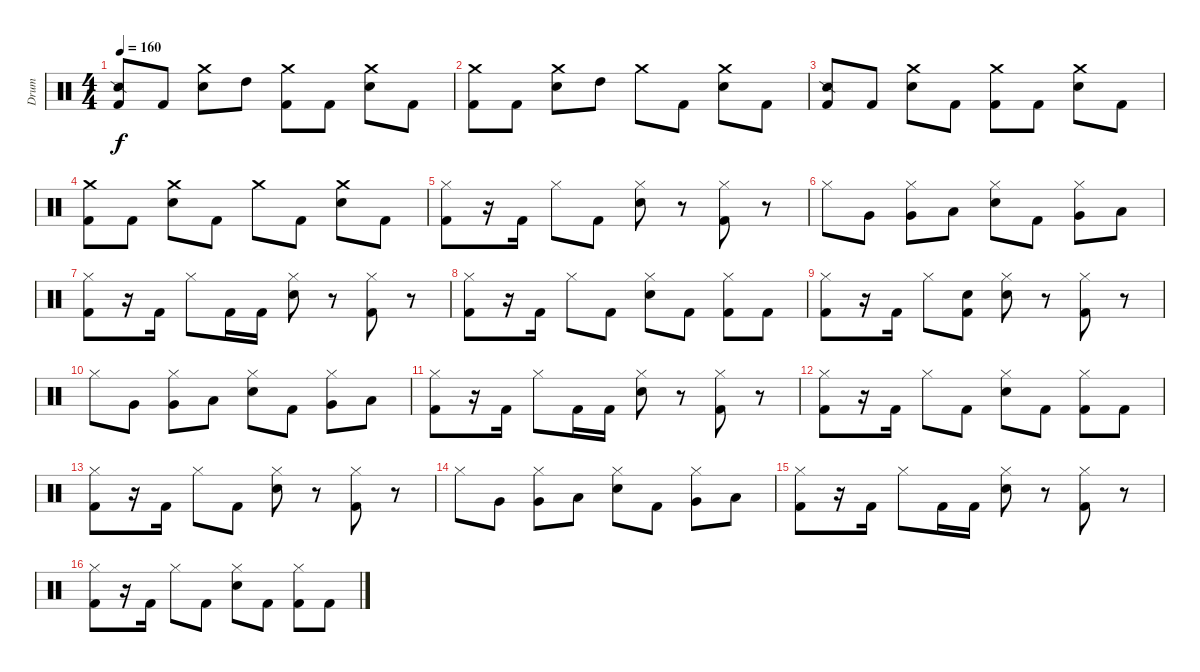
\track ("Drum" "Drum") {instrument percussion}
\staff {score}
\articulation defaults
\ts (4 4)
\tempo 160
\clef neutral
\ks c
("Kick (hit) 2" "Snare (side stick) 2").8{dy f} "Kick (hit) 2".8 ("Crash medium (hit)" "Electric Snare (hit)").8 "High Tom (hit)".8 ("Crash medium (hit)" "Kick (hit) 2").8 "Kick (hit) 2".8 ("Electric Snare (hit)" "Crash medium (hit)").8 "Kick (hit) 2".8 |
("Kick (hit) 2" "Crash medium (hit)").8 "Kick (hit) 2".8 ("Crash medium (hit)" "Electric Snare (hit)").8 "High Tom (hit)".8 "Crash medium (hit)".8 "Kick (hit) 2".8 ("Crash medium (hit)" "Electric Snare (hit)").8 "Kick (hit) 2".8 |
("Kick (hit) 2" "Snare (side stick) 2").8 "Kick (hit) 2".8 ("Electric Snare (hit)" "Crash medium (hit)").8 "Kick (hit) 2".8 ("Crash medium (hit)" "Kick (hit) 2").8 "Kick (hit) 2".8 ("Crash medium (hit)" "Electric Snare (hit)").8 "Kick (hit) 2".8 |
("Crash medium (hit)" "Kick (hit) 2").8 "Kick (hit) 2".8 ("Electric Snare (hit)" "Crash medium (hit)").8 "Kick (hit) 2".8 "Crash medium (hit)".8 "Kick (hit) 2".8 ("Electric Snare (hit)" "Crash medium (hit)").8 "Kick (hit) 2".8 |
("Kick (hit) 2" "Hi-Hat (closed)").8 r.16 "Kick (hit) 2".16 "Hi-Hat (closed)".8 "Kick (hit) 2".8 ("Electric Snare (hit)" "Hi-Hat (closed)").8 r.8 ("Kick (hit) 2" "Hi-Hat (closed)").8 r.8 |
"Hi-Hat (closed)".8 "Very Low Tom (hit)".8 ("Very Low Tom (hit)" "Hi-Hat (closed)").8 "Low Floor Tom (hit)".8 ("Electric Snare (hit)" "Hi-Hat (closed)").8 "Kick (hit) 2".8 ("Hi-Hat (closed)" "Very Low Tom (hit)").8 "Low Floor Tom (hit)".8 |
("Hi-Hat (closed)" "Kick (hit) 2").8 r.16 "Kick (hit) 2".16 "Hi-Hat (closed)".8 "Kick (hit) 2".16 "Kick (hit) 2".16 ("Electric Snare (hit)" "Hi-Hat (closed)").8 r.8 ("Hi-Hat (closed)" "Kick (hit) 2").8 r.8 |
("Hi-Hat (closed)" "Kick (hit) 2").8 r.16 "Kick (hit) 2".16 "Hi-Hat (closed)".8 "Kick (hit) 2".8 ("Hi-Hat (closed)" "Electric Snare (hit)").8 "Kick (hit) 2".8 ("Kick (hit) 2" "Hi-Hat (closed)").8 "Kick (hit) 2".8 |
("Kick (hit) 2" "Hi-Hat (closed)").8 r.16 "Kick (hit) 2".16 "Hi-Hat (closed)".8 ("Kick (hit) 2" "Snare (hit)").8 ("Hi-Hat (closed)" "Electric Snare (hit)").8 r.8 ("Kick (hit) 2" "Hi-Hat (closed)").8 r.8 |
"Hi-Hat (closed)".8 "Very Low Tom (hit)".8 ("Very Low Tom (hit)" "Hi-Hat (closed)").8 "Low Floor Tom (hit)".8 ("Hi-Hat (closed)" "Electric Snare (hit)").8 "Kick (hit) 2".8 ("Hi-Hat (closed)" "Very Low Tom (hit)").8 "Low Floor Tom (hit)".8 |
("Hi-Hat (closed)" "Kick (hit) 2").8 r.16 "Kick (hit) 2".16 "Hi-Hat (closed)".8 "Kick (hit) 2".16 "Kick (hit) 2".16 ("Hi-Hat (closed)" "Electric Snare (hit)").8 r.8 ("Hi-Hat (closed)" "Kick (hit) 2").8 r.8 |
("Hi-Hat (closed)" "Kick (hit) 2").8 r.16 "Kick (hit) 2".16 "Hi-Hat (closed)".8 "Kick (hit) 2".8 ("Hi-Hat (closed)" "Electric Snare (hit)").8 "Kick (hit) 2".8 ("Hi-Hat (closed)" "Kick (hit) 2").8 "Kick (hit) 2".8 |
("Hi-Hat (closed)" "Kick (hit) 2").8 r.16 "Kick (hit) 2".16 "Hi-Hat (closed)".8 "Kick (hit) 2".8 ("Electric Snare (hit)" "Hi-Hat (closed)").8 r.8 ("Hi-Hat (closed)" "Kick (hit) 2").8 r.8 |
"Hi-Hat (closed)".8 "Very Low Tom (hit)".8 ("Very Low Tom (hit)" "Hi-Hat (closed)").8 "Low Floor Tom (hit)".8 ("Hi-Hat (closed)" "Electric Snare (hit)").8 "Kick (hit) 2".8 ("Very Low Tom (hit)" "Hi-Hat (closed)").8 "Low Floor Tom (hit)".8 |
("Kick (hit) 2" "Hi-Hat (closed)").8 r.16 "Kick (hit) 2".16 "Hi-Hat (closed)".8 "Kick (hit) 2".16 "Kick (hit) 2".16 ("Electric Snare (hit)" "Hi-Hat (closed)").8 r.8 ("Kick (hit) 2" "Hi-Hat (closed)").8 r.8 |
("Hi-Hat (closed)" "Kick (hit) 2").8 r.16 "Kick (hit) 2".16 "Hi-Hat (closed)".8 "Kick (hit) 2".8 ("Electric Snare (hit)" "Hi-Hat (closed)").8 "Kick (hit) 2".8 ("Kick (hit) 2" "Hi-Hat (closed)").8 "Kick (hit) 2".8
